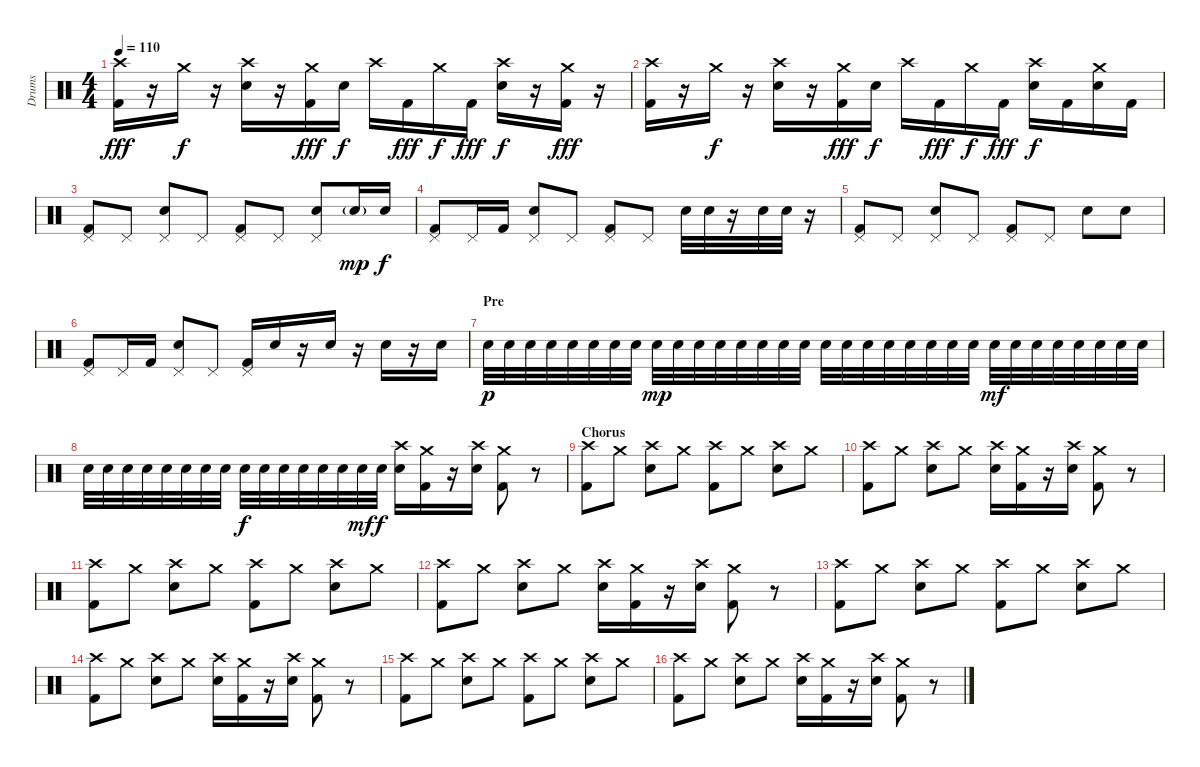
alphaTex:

\track ("Drums" "Drums") {instrument percussion}
\staff {score}
\articulation defaults
\ts (4 4)
\tempo 110
\clef neutral
\ks c
("Crash high (hit)" "Kick (hit) 2").16{dy fff} r.16 "Crash medium (hit)".16{dy f} r.16 ("Crash high (hit)" "Electric Snare (hit)").16 r.16 ("Crash medium (hit)" "Kick (hit) 2").16{dy fff} "Electric Snare (hit)".16{dy f} "Crash high (hit)".16 "Kick (hit) 2".16{dy fff} "Crash medium (hit)".16{dy f} "Kick (hit) 2".16{dy fff} ("Crash high (hit)" "Electric Snare (hit)").16{dy f} r.16 ("Crash medium (hit)" "Kick (hit) 2").16{dy fff} r.16 |
("Crash high (hit)" "Kick (hit) 2").16 r.16 "Crash medium (hit)".16{dy f} r.16 ("Crash high (hit)" "Electric Snare (hit)").16 r.16 ("Crash medium (hit)" "Kick (hit) 2").16{dy fff} "Electric Snare (hit)".16{dy f} "Crash high (hit)".16 "Kick (hit) 2".16{dy fff} "Crash medium (hit)".16{dy f} "Kick (hit) 2".16{dy fff} ("Crash high (hit)" "Electric Snare (hit)").16{dy f} "Kick (hit) 2".16 ("Crash medium (hit)" "Electric Snare (hit)").16 "Kick (hit) 2".16 |
("Pedal Hi-Hat (hit)" "Kick (hit) 2").8 "Pedal Hi-Hat (hit)".8 ("Pedal Hi-Hat (hit)" "Electric Snare (hit)").8 "Pedal Hi-Hat (hit)".8 ("Pedal Hi-Hat (hit)" "Kick (hit) 2").8 "Pedal Hi-Hat (hit)".8 ("Pedal Hi-Hat (hit)" "Electric Snare (hit)").8 "Electric Snare (hit)"{g}.16{dy mp} "Electric Snare (hit)".16{dy f} |
("Pedal Hi-Hat (hit)" "Kick (hit) 2").8 "Pedal Hi-Hat (hit)".16 "Kick (hit) 2".16 ("Pedal Hi-Hat (hit)" "Electric Snare (hit)").8 "Pedal Hi-Hat (hit)".8 ("Pedal Hi-Hat (hit)" "Kick (hit) 2").8 "Pedal Hi-Hat (hit)".8 "Electric Snare (hit)".32 "Electric Snare (hit)".32 r.16 "Electric Snare (hit)".32 "Electric Snare (hit)".32 r.16 |
("Pedal Hi-Hat (hit)" "Kick (hit) 2").8 "Pedal Hi-Hat (hit)".8 ("Pedal Hi-Hat (hit)" "Electric Snare (hit)").8 "Pedal Hi-Hat (hit)".8 ("Pedal Hi-Hat (hit)" "Kick (hit) 2").8 "Pedal Hi-Hat (hit)".8 "Electric Snare (hit)".8 "Electric Snare (hit)".8 |
("Pedal Hi-Hat (hit)" "Kick (hit) 2").8 "Pedal Hi-Hat (hit)".16 "Kick (hit) 2".16 ("Pedal Hi-Hat (hit)" "Electric Snare (hit)").8 "Pedal Hi-Hat (hit)".8 ("Pedal Hi-Hat (hit)" "Kick (hit) 2").16 "Electric Snare (hit)".16 r.16 "Electric Snare (hit)".16 r.16 "Electric Snare (hit)".16 r.16 "Electric Snare (hit)".16 |
\section ("" "Pre")
"Electric Snare (hit)".32{dy p} "Electric Snare (hit)".32 "Electric Snare (hit)".32 "Electric Snare (hit)".32 "Electric Snare (hit)".32 "Electric Snare (hit)".32 "Electric Snare (hit)".32 "Electric Snare (hit)".32 "Electric Snare (hit)".32{dy mp} "Electric Snare (hit)".32 "Electric Snare (hit)".32 "Electric Snare (hit)".32 "Electric Snare (hit)".32 "Electric Snare (hit)".32 "Electric Snare (hit)".32 "Electric Snare (hit)".32 "Electric Snare (hit)".32 "Electric Snare (hit)".32 "Electric Snare (hit)".32 "Electric Snare (hit)".32 "Electric Snare (hit)".32 "Electric Snare (hit)".32 "Electric Snare (hit)".32 "Electric Snare (hit)".32 "Electric Snare (hit)".32{dy mf} "Electric Snare (hit)".32 "Electric Snare (hit)".32 "Electric Snare (hit)".32 "Electric Snare (hit)".32 "Electric Snare (hit)".32 "Electric Snare (hit)".32 "Electric Snare (hit)".32 |
"Electric Snare (hit)".32 "Electric Snare (hit)".32 "Electric Snare (hit)".32 "Electric Snare (hit)".32 "Electric Snare (hit)".32 "Electric Snare (hit)".32 "Electric Snare (hit)".32 "Electric Snare (hit)".32 "Electric Snare (hit)".32{dy f} "Electric Snare (hit)".32 "Electric Snare (hit)".32 "Electric Snare (hit)".32 "Electric Snare (hit)".32 "Electric Snare (hit)".32 "Electric Snare (hit)".32{dy mf} "Electric Snare (hit)".32{dy f} ("Crash high (hit)" "Electric Snare (hit)").16 ("Crash medium (hit)" "Kick (hit) 2").16 r.16 ("Crash high (hit)" "Electric Snare (hit)").16 ("Crash medium (hit)" "Kick (hit) 2").8 r.8 |
\section ("" "Chorus")
("Crash high (hit)" "Kick (hit) 2").8 "Crash medium (hit)".8 ("Crash high (hit)" "Electric Snare (hit)").8 "Crash medium (hit)".8 ("Crash high (hit)" "Kick (hit) 2").8 "Crash medium (hit)".8 ("Crash high (hit)" "Electric Snare (hit)").8 "Crash medium (hit)".8 |
("Crash high (hit)" "Kick (hit) 2").8 "Crash medium (hit)".8 ("Crash high (hit)" "Electric Snare (hit)").8 "Crash medium (hit)".8 ("Crash high (hit)" "Electric Snare (hit)").16 ("Crash medium (hit)" "Kick (hit) 2").16 r.16 ("Crash high (hit)" "Electric Snare (hit)").16 ("Crash medium (hit)" "Kick (hit) 2").8 r.8 |
("Crash high (hit)" "Kick (hit) 2").8 "Crash medium (hit)".8 ("Crash high (hit)" "Electric Snare (hit)").8 "Crash medium (hit)".8 ("Crash high (hit)" "Kick (hit) 2").8 "Crash medium (hit)".8 ("Crash high (hit)" "Electric Snare (hit)").8 "Crash medium (hit)".8 |
("Crash high (hit)" "Kick (hit) 2").8 "Crash medium (hit)".8 ("Crash high (hit)" "Electric Snare (hit)").8 "Crash medium (hit)".8 ("Crash high (hit)" "Electric Snare (hit)").16 ("Crash medium (hit)" "Kick (hit) 2").16 r.16 ("Crash high (hit)" "Electric Snare (hit)").16 ("Crash medium (hit)" "Kick (hit) 2").8 r.8 |
("Crash high (hit)" "Kick (hit) 2").8 "Crash medium (hit)".8 ("Crash high (hit)" "Electric Snare (hit)").8 "Crash medium (hit)".8 ("Crash high (hit)" "Kick (hit) 2").8 "Crash medium (hit)".8 ("Crash high (hit)" "Electric Snare (hit)").8 "Crash medium (hit)".8 |
("Crash high (hit)" "Kick (hit) 2").8 "Crash medium (hit)".8 ("Crash high (hit)" "Electric Snare (hit)").8 "Crash medium (hit)".8 ("Crash high (hit)" "Electric Snare (hit)").16 ("Crash medium (hit)" "Kick (hit) 2").16 r.16 ("Crash high (hit)" "Electric Snare (hit)").16 ("Crash medium (hit)" "Kick (hit) 2").8 r.8 |
("Crash high (hit)" "Kick (hit) 2").8 "Crash medium (hit)".8 ("Crash high (hit)" "Electric Snare (hit)").8 "Crash medium (hit)".8 ("Crash high (hit)" "Kick (hit) 2").8 "Crash medium (hit)".8 ("Crash high (hit)" "Electric Snare (hit)").8 "Crash medium (hit)".8 |
("Crash high (hit)" "Kick (hit) 2").8 "Crash medium (hit)".8 ("Crash high (hit)" "Electric Snare (hit)").8 "Crash medium (hit)".8 ("Crash high (hit)" "Electric Snare (hit)").16 ("Crash medium (hit)" "Kick (hit) 2").16 r.16 ("Crash high (hit)" "Electric Snare (hit)").16 ("Crash medium (hit)" "Kick (hit) 2").8 r.8
